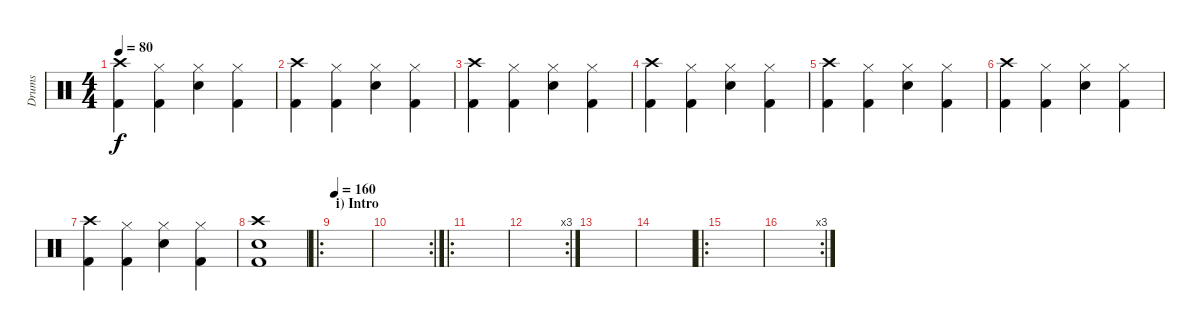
\track ("Drums" "Drums") {instrument percussion}
\staff {score}
\articulation defaults
\ts (4 4)
\tempo 80
\clef neutral
\ks c
("Crash high (hit)" "Kick (hit) 2").4{dy f} ("Hi-Hat (closed)" "Kick (hit) 2").4 ("Hi-Hat (closed)" "Electric Snare (hit)").4 ("Hi-Hat (closed)" "Kick (hit) 2").4 |
("Crash high (hit)" "Kick (hit) 2").4 ("Hi-Hat (closed)" "Kick (hit) 2").4 ("Hi-Hat (closed)" "Electric Snare (hit)").4 ("Hi-Hat (closed)" "Kick (hit) 2").4 |
("Crash high (hit)" "Kick (hit) 2").4 ("Hi-Hat (closed)" "Kick (hit) 2").4 ("Hi-Hat (closed)" "Electric Snare (hit)").4 ("Hi-Hat (closed)" "Kick (hit) 2").4 |
("Crash high (hit)" "Kick (hit) 2").4 ("Hi-Hat (closed)" "Kick (hit) 2").4 ("Hi-Hat (closed)" "Electric Snare (hit)").4 ("Hi-Hat (closed)" "Kick (hit) 2").4 |
("Crash high (hit)" "Kick (hit) 2").4 ("Hi-Hat (closed)" "Kick (hit) 2").4 ("Hi-Hat (closed)" "Electric Snare (hit)").4 ("Hi-Hat (closed)" "Kick (hit) 2").4 |
("Crash high (hit)" "Kick (hit) 2").4 ("Hi-Hat (closed)" "Kick (hit) 2").4 ("Hi-Hat (closed)" "Electric Snare (hit)").4 ("Hi-Hat (closed)" "Kick (hit) 2").4 |
("Crash high (hit)" "Kick (hit) 2").4 ("Hi-Hat (closed)" "Kick (hit) 2").4 ("Hi-Hat (closed)" "Electric Snare (hit)").4 ("Hi-Hat (closed)" "Kick (hit) 2").4 |
("Crash high (hit)" "Electric Snare (hit)" "Kick (hit) 2").1 |
\ro
\section ("" "i) Intro")
\tempo 160
|
\rc 2
|
\ro
|
\rc 3
|
|
|
\ro
|
\rc 3
